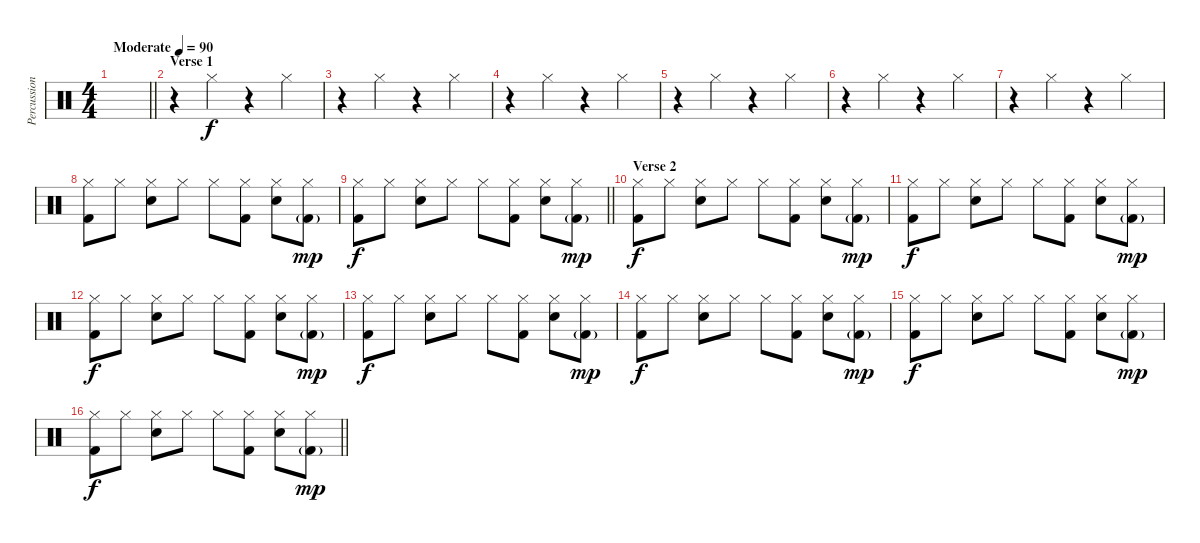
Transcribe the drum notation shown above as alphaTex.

\track ("Percussion" "Percussion") {instrument percussion}
\staff {score}
\articulation defaults
\ts (4 4)
\tempo (90 "Moderate")
\clef neutral
\barLineRight lightlight
\ks c
|
\section ("" "Verse 1")
r.4 "Hi-Hat (closed)".4 r.4 "Hi-Hat (closed)".4 |
r.4 "Hi-Hat (closed)".4 r.4 "Hi-Hat (closed)".4 |
r.4 "Hi-Hat (closed)".4 r.4 "Hi-Hat (closed)".4 |
r.4 "Hi-Hat (closed)".4 r.4 "Hi-Hat (closed)".4 |
r.4 "Hi-Hat (closed)".4 r.4 "Hi-Hat (closed)".4 |
r.4 "Hi-Hat (closed)".4 r.4 "Hi-Hat (closed)".4 |
("Hi-Hat (closed)" "Kick (hit) 2").8 "Hi-Hat (closed)".8 ("Hi-Hat (closed)" "Snare (hit) 2").8 "Hi-Hat (closed)".8 "Hi-Hat (closed)".8 ("Hi-Hat (closed)" "Kick (hit) 2").8 ("Hi-Hat (closed)" "Snare (hit) 2").8 ("Hi-Hat (closed)" "Kick (hit) 2"{g}).8{dy mp} |
\barLineRight lightlight
("Hi-Hat (closed)" "Kick (hit) 2").8{dy f} "Hi-Hat (closed)".8 ("Hi-Hat (closed)" "Snare (hit) 2").8 "Hi-Hat (closed)".8 "Hi-Hat (closed)".8 ("Hi-Hat (closed)" "Kick (hit) 2").8 ("Hi-Hat (closed)" "Snare (hit) 2").8 ("Hi-Hat (closed)" "Kick (hit) 2"{g}).8{dy mp} |
\section ("" "Verse 2")
("Hi-Hat (closed)" "Kick (hit) 2").8{dy f} "Hi-Hat (closed)".8 ("Hi-Hat (closed)" "Snare (hit) 2").8 "Hi-Hat (closed)".8 "Hi-Hat (closed)".8 ("Hi-Hat (closed)" "Kick (hit) 2").8 ("Hi-Hat (closed)" "Snare (hit) 2").8 ("Hi-Hat (closed)" "Kick (hit) 2"{g}).8{dy mp} |
("Hi-Hat (closed)" "Kick (hit) 2").8{dy f} "Hi-Hat (closed)".8 ("Hi-Hat (closed)" "Snare (hit) 2").8 "Hi-Hat (closed)".8 "Hi-Hat (closed)".8 ("Hi-Hat (closed)" "Kick (hit) 2").8 ("Hi-Hat (closed)" "Snare (hit) 2").8 ("Hi-Hat (closed)" "Kick (hit) 2"{g}).8{dy mp} |
("Hi-Hat (closed)" "Kick (hit) 2").8{dy f} "Hi-Hat (closed)".8 ("Hi-Hat (closed)" "Snare (hit) 2").8 "Hi-Hat (closed)".8 "Hi-Hat (closed)".8 ("Hi-Hat (closed)" "Kick (hit) 2").8 ("Hi-Hat (closed)" "Snare (hit) 2").8 ("Hi-Hat (closed)" "Kick (hit) 2"{g}).8{dy mp} |
("Hi-Hat (closed)" "Kick (hit) 2").8{dy f} "Hi-Hat (closed)".8 ("Hi-Hat (closed)" "Snare (hit) 2").8 "Hi-Hat (closed)".8 "Hi-Hat (closed)".8 ("Hi-Hat (closed)" "Kick (hit) 2").8 ("Hi-Hat (closed)" "Snare (hit) 2").8 ("Hi-Hat (closed)" "Kick (hit) 2"{g}).8{dy mp} |
("Hi-Hat (closed)" "Kick (hit) 2").8{dy f} "Hi-Hat (closed)".8 ("Hi-Hat (closed)" "Snare (hit) 2").8 "Hi-Hat (closed)".8 "Hi-Hat (closed)".8 ("Hi-Hat (closed)" "Kick (hit) 2").8 ("Hi-Hat (closed)" "Snare (hit) 2").8 ("Hi-Hat (closed)" "Kick (hit) 2"{g}).8{dy mp} |
("Hi-Hat (closed)" "Kick (hit) 2").8{dy f} "Hi-Hat (closed)".8 ("Hi-Hat (closed)" "Snare (hit) 2").8 "Hi-Hat (closed)".8 "Hi-Hat (closed)".8 ("Hi-Hat (closed)" "Kick (hit) 2").8 ("Hi-Hat (closed)" "Snare (hit) 2").8 ("Hi-Hat (closed)" "Kick (hit) 2"{g}).8{dy mp} |
\barLineRight lightlight
("Hi-Hat (closed)" "Kick (hit) 2").8{dy f} "Hi-Hat (closed)".8 ("Hi-Hat (closed)" "Snare (hit) 2").8 "Hi-Hat (closed)".8 "Hi-Hat (closed)".8 ("Hi-Hat (closed)" "Kick (hit) 2").8 ("Hi-Hat (closed)" "Snare (hit) 2").8 ("Hi-Hat (closed)" "Kick (hit) 2"{g}).8{dy mp}
